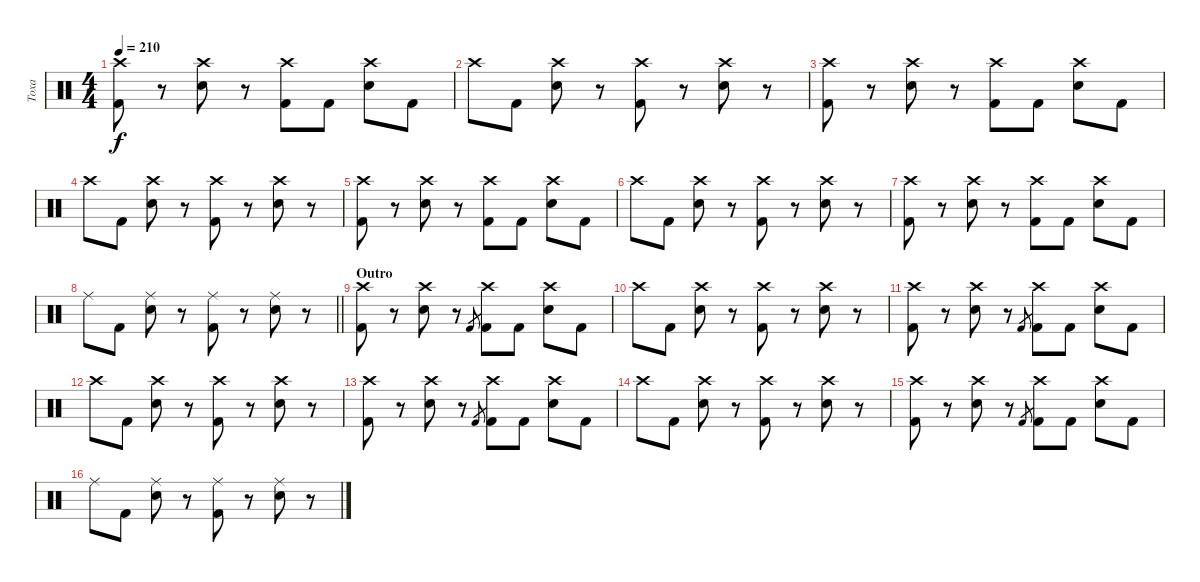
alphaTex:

\track ("Toxa" "Toxa") {instrument percussion}
\staff {score}
\articulation defaults
\ts (4 4)
\tempo 210
\clef neutral
\ks c
("Kick (hit) 2" "Crash high (hit)").8{dy f} r.8 ("Snare (hit) 2" "Crash high (hit)").8 r.8 ("Kick (hit) 2" "Crash high (hit)").8 "Kick (hit) 2".8 ("Snare (hit) 2" "Crash high (hit)").8 "Kick (hit) 2".8 |
"Crash high (hit)".8 "Kick (hit) 2".8 ("Snare (hit) 2" "Crash high (hit)").8 r.8 ("Kick (hit) 2" "Crash high (hit)").8 r.8 ("Snare (hit) 2" "Crash high (hit)").8 r.8 |
("Kick (hit) 2" "Crash high (hit)").8 r.8 ("Snare (hit) 2" "Crash high (hit)").8 r.8 ("Kick (hit) 2" "Crash high (hit)").8 "Kick (hit) 2".8 ("Snare (hit) 2" "Crash high (hit)").8 "Kick (hit) 2".8 |
"Crash high (hit)".8 "Kick (hit) 2".8 ("Snare (hit) 2" "Crash high (hit)").8 r.8 ("Kick (hit) 2" "Crash high (hit)").8 r.8 ("Snare (hit) 2" "Crash high (hit)").8 r.8 |
("Kick (hit) 2" "Crash high (hit)").8 r.8 ("Snare (hit) 2" "Crash high (hit)").8 r.8 ("Kick (hit) 2" "Crash high (hit)").8 "Kick (hit) 2".8 ("Snare (hit) 2" "Crash high (hit)").8 "Kick (hit) 2".8 |
"Crash high (hit)".8 "Kick (hit) 2".8 ("Snare (hit) 2" "Crash high (hit)").8 r.8 ("Kick (hit) 2" "Crash high (hit)").8 r.8 ("Snare (hit) 2" "Crash high (hit)").8 r.8 |
("Kick (hit) 2" "Crash high (hit)").8 r.8 ("Snare (hit) 2" "Crash high (hit)").8 r.8 ("Kick (hit) 2" "Crash high (hit)").8 "Kick (hit) 2".8 ("Snare (hit) 2" "Crash high (hit)").8 "Kick (hit) 2".8 |
\barLineRight lightlight "Ride (middle)".8 "Kick (hit) 2".8
("Snare (hit) 2" "Ride (middle)").8 r.8 ("Kick (hit) 2" "Ride (middle)").8 r.8 ("Snare (hit) 2" "Ride (middle)").8 r.8 |
\section ("" "Outro")
("Kick (hit) 2" "Crash high (hit)").8 r.8 ("Snare (hit) 2" "Crash high (hit)").8 r.8 "Kick (hit) 2".8{gr} ("Kick (hit) 2" "Crash high (hit)").8 "Kick (hit) 2".8 ("Snare (hit) 2" "Crash high (hit)").8 "Kick (hit) 2".8 |
"Crash high (hit)".8 "Kick (hit) 2".8 ("Snare (hit) 2" "Crash high (hit)").8 r.8 ("Kick (hit) 2" "Crash high (hit)").8 r.8 ("Snare (hit) 2" "Crash high (hit)").8 r.8 |
("Kick (hit) 2" "Crash high (hit)").8 r.8 ("Snare (hit) 2" "Crash high (hit)").8 r.8 "Kick (hit) 2".8{gr} ("Kick (hit) 2" "Crash high (hit)").8 "Kick (hit) 2".8 ("Snare (hit) 2" "Crash high (hit)").8 "Kick (hit) 2".8 |
"Crash high (hit)".8 "Kick (hit) 2".8 ("Snare (hit) 2" "Crash high (hit)").8 r.8 ("Kick (hit) 2" "Crash high (hit)").8 r.8 ("Snare (hit) 2" "Crash high (hit)").8 r.8 |
("Kick (hit) 2" "Crash high (hit)").8 r.8 ("Snare (hit) 2" "Crash high (hit)").8 r.8 "Kick (hit) 2".8{gr} ("Kick (hit) 2" "Crash high (hit)").8 "Kick (hit) 2".8 ("Snare (hit) 2" "Crash high (hit)").8 "Kick (hit) 2".8 |
"Crash high (hit)".8 "Kick (hit) 2".8 ("Snare (hit) 2" "Crash high (hit)").8 r.8 ("Kick (hit) 2" "Crash high (hit)").8 r.8 ("Snare (hit) 2" "Crash high (hit)").8 r.8 |
("Kick (hit) 2" "Crash high (hit)").8 r.8 ("Snare (hit) 2" "Crash high (hit)").8 r.8 "Kick (hit) 2".8{gr} ("Kick (hit) 2" "Crash high (hit)").8 "Kick (hit) 2".8 ("Snare (hit) 2" "Crash high (hit)").8 "Kick (hit) 2".8 |
"Ride (middle)".8 "Kick (hit) 2".8 ("Snare (hit) 2" "Ride (middle)").8 r.8 ("Kick (hit) 2" "Ride (middle)").8 r.8 ("Snare (hit) 2" "Ride (middle)").8 r.8
